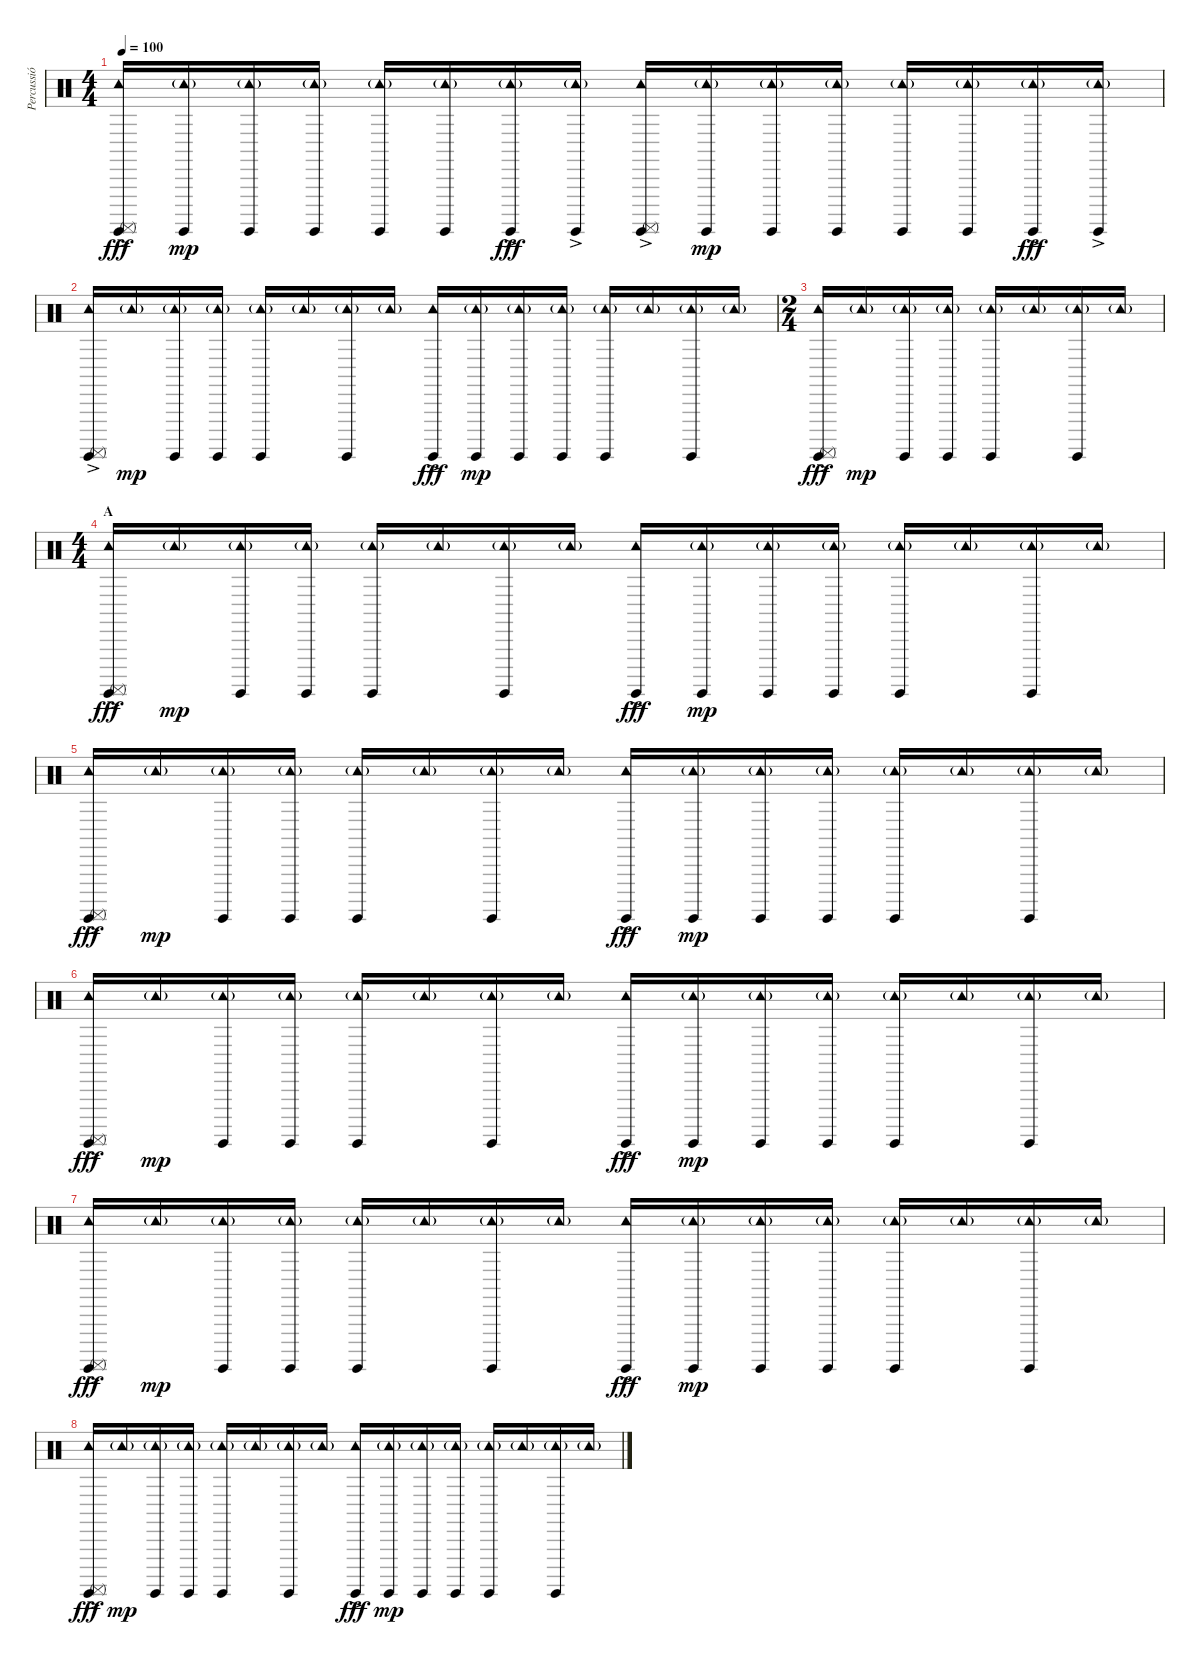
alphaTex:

\track ("Percussió" "Percussió") {instrument percussion}
\staff {score}
\articulation defaults
\ts (4 4)
\tempo 100
\clef neutral
\ks c
("Tambourine (hit)"{ac} "Surdo (hit)" "Surdo (mute)"{ac}).16{dy fff} ("Tambourine (hit)"{g} "Surdo (hit)").16{dy mp} ("Tambourine (hit)"{g} "Surdo (hit)").16 ("Tambourine (hit)"{g} "Surdo (hit)").16 ("Tambourine (hit)"{g} "Surdo (hit)").16 ("Tambourine (hit)"{g} "Surdo (hit)").16 ("Tambourine (hit)"{g} "Surdo (hit)"{ac}).16{dy fff} ("Tambourine (hit)"{g} "Surdo (hit)"{ac}).16 ("Tambourine (hit)"{ac} "Surdo (hit)"{ac} "Surdo (mute)"{ac}).16 ("Tambourine (hit)"{g} "Surdo (hit)").16{dy mp} ("Tambourine (hit)"{g} "Surdo (hit)").16 ("Tambourine (hit)"{g} "Surdo (hit)").16 ("Tambourine (hit)"{g} "Surdo (hit)").16 ("Tambourine (hit)"{g} "Surdo (hit)").16 ("Tambourine (hit)"{g} "Surdo (hit)"{ac}).16{dy fff} ("Tambourine (hit)"{g} "Surdo (hit)"{ac}).16 |
("Tambourine (hit)"{ac} "Surdo (hit)" "Surdo (mute)"{ac}).16 "Tambourine (hit)"{g}.16{dy mp} ("Tambourine (hit)"{g} "Surdo (hit)").16 ("Tambourine (hit)"{g} "Surdo (hit)").16 ("Tambourine (hit)"{g} "Surdo (hit)").16 "Tambourine (hit)"{g}.16 ("Tambourine (hit)"{g} "Surdo (hit)").16 "Tambourine (hit)"{g}.16 ("Tambourine (hit)"{ac} "Surdo (hit)"{ac}).16{dy fff} ("Tambourine (hit)"{g} "Surdo (hit)").16{dy mp} ("Tambourine (hit)"{g} "Surdo (hit)").16 ("Tambourine (hit)"{g} "Surdo (hit)").16 ("Tambourine (hit)"{g} "Surdo (hit)").16 "Tambourine (hit)"{g}.16 ("Tambourine (hit)"{g} "Surdo (hit)").16 "Tambourine (hit)"{g}.16 |
\ts (2 4)
("Tambourine (hit)"{ac} "Surdo (hit)" "Surdo (mute)"{ac}).16{dy fff} "Tambourine (hit)"{g}.16{dy mp} ("Tambourine (hit)"{g} "Surdo (hit)").16 ("Tambourine (hit)"{g} "Surdo (hit)").16 ("Tambourine (hit)"{g} "Surdo (hit)").16 "Tambourine (hit)"{g}.16 ("Tambourine (hit)"{g} "Surdo (hit)").16 "Tambourine (hit)"{g}.16 |
\ts (4 4)
\section ("" "A")
("Tambourine (hit)"{ac} "Surdo (hit)" "Surdo (mute)"{ac}).16{dy fff} "Tambourine (hit)"{g}.16{dy mp} ("Tambourine (hit)"{g} "Surdo (hit)").16 ("Tambourine (hit)"{g} "Surdo (hit)").16 ("Tambourine (hit)"{g} "Surdo (hit)").16 "Tambourine (hit)"{g}.16 ("Tambourine (hit)"{g} "Surdo (hit)").16 "Tambourine (hit)"{g}.16 ("Tambourine (hit)"{ac} "Surdo (hit)"{ac}).16{dy fff} ("Tambourine (hit)"{g} "Surdo (hit)").16{dy mp} ("Tambourine (hit)"{g} "Surdo (hit)").16 ("Tambourine (hit)"{g} "Surdo (hit)").16 ("Tambourine (hit)"{g} "Surdo (hit)").16 "Tambourine (hit)"{g}.16 ("Tambourine (hit)"{g} "Surdo (hit)").16 "Tambourine (hit)"{g}.16 |
("Tambourine (hit)"{ac} "Surdo (hit)" "Surdo (mute)"{ac}).16{dy fff} "Tambourine (hit)"{g}.16{dy mp} ("Tambourine (hit)"{g} "Surdo (hit)").16 ("Tambourine (hit)"{g} "Surdo (hit)").16 ("Tambourine (hit)"{g} "Surdo (hit)").16 "Tambourine (hit)"{g}.16 ("Tambourine (hit)"{g} "Surdo (hit)").16 "Tambourine (hit)"{g}.16 ("Tambourine (hit)"{ac} "Surdo (hit)"{ac}).16{dy fff} ("Tambourine (hit)"{g} "Surdo (hit)").16{dy mp} ("Tambourine (hit)"{g} "Surdo (hit)").16 ("Tambourine (hit)"{g} "Surdo (hit)").16 ("Tambourine (hit)"{g} "Surdo (hit)").16 "Tambourine (hit)"{g}.16 ("Tambourine (hit)"{g} "Surdo (hit)").16 "Tambourine (hit)"{g}.16 |
("Tambourine (hit)"{ac} "Surdo (hit)" "Surdo (mute)"{ac}).16{dy fff} "Tambourine (hit)"{g}.16{dy mp} ("Tambourine (hit)"{g} "Surdo (hit)").16 ("Tambourine (hit)"{g} "Surdo (hit)").16 ("Tambourine (hit)"{g} "Surdo (hit)").16 "Tambourine (hit)"{g}.16 ("Tambourine (hit)"{g} "Surdo (hit)").16 "Tambourine (hit)"{g}.16 ("Tambourine (hit)"{ac} "Surdo (hit)"{ac}).16{dy fff} ("Tambourine (hit)"{g} "Surdo (hit)").16{dy mp} ("Tambourine (hit)"{g} "Surdo (hit)").16 ("Tambourine (hit)"{g} "Surdo (hit)").16 ("Tambourine (hit)"{g} "Surdo (hit)").16 "Tambourine (hit)"{g}.16 ("Tambourine (hit)"{g} "Surdo (hit)").16 "Tambourine (hit)"{g}.16 |
("Tambourine (hit)"{ac} "Surdo (hit)" "Surdo (mute)"{ac}).16{dy fff} "Tambourine (hit)"{g}.16{dy mp} ("Tambourine (hit)"{g} "Surdo (hit)").16 ("Tambourine (hit)"{g} "Surdo (hit)").16 ("Tambourine (hit)"{g} "Surdo (hit)").16 "Tambourine (hit)"{g}.16 ("Tambourine (hit)"{g} "Surdo (hit)").16 "Tambourine (hit)"{g}.16 ("Tambourine (hit)"{ac} "Surdo (hit)"{ac}).16{dy fff} ("Tambourine (hit)"{g} "Surdo (hit)").16{dy mp} ("Tambourine (hit)"{g} "Surdo (hit)").16 ("Tambourine (hit)"{g} "Surdo (hit)").16 ("Tambourine (hit)"{g} "Surdo (hit)").16 "Tambourine (hit)"{g}.16 ("Tambourine (hit)"{g} "Surdo (hit)").16 "Tambourine (hit)"{g}.16 |
("Tambourine (hit)"{ac} "Surdo (hit)" "Surdo (mute)"{ac}).16{dy fff} "Tambourine (hit)"{g}.16{dy mp} ("Tambourine (hit)"{g} "Surdo (hit)").16 ("Tambourine (hit)"{g} "Surdo (hit)").16 ("Tambourine (hit)"{g} "Surdo (hit)").16 "Tambourine (hit)"{g}.16 ("Tambourine (hit)"{g} "Surdo (hit)").16 "Tambourine (hit)"{g}.16 ("Tambourine (hit)"{ac} "Surdo (hit)"{ac}).16{dy fff} ("Tambourine (hit)"{g} "Surdo (hit)").16{dy mp} ("Tambourine (hit)"{g} "Surdo (hit)").16 ("Tambourine (hit)"{g} "Surdo (hit)").16 ("Tambourine (hit)"{g} "Surdo (hit)").16 "Tambourine (hit)"{g}.16 ("Tambourine (hit)"{g} "Surdo (hit)").16 "Tambourine (hit)"{g}.16
